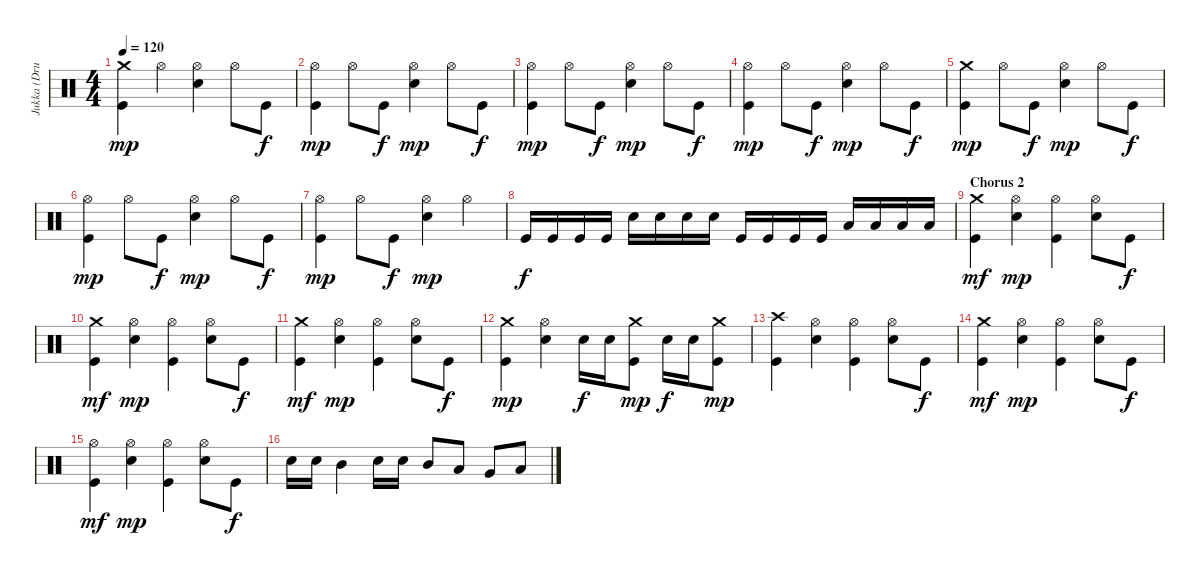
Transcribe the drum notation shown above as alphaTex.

\track ("Jukka (Drums)" "Jukka (Dru") {instrument percussion}
\staff {score}
\articulation defaults
\ts (4 4)
\tempo 120
\clef neutral
\ks c
("Crash medium (hit)" "Kick (hit)").4{dy mp} "Hi-Hat (open)".4 ("Hi-Hat (open)" "Electric Snare (hit)").4 "Hi-Hat (open)".8 "Kick (hit)".8{dy f} |
("Hi-Hat (open)" "Kick (hit)").4{dy mp} "Hi-Hat (open)".8 "Kick (hit)".8{dy f} ("Hi-Hat (open)" "Electric Snare (hit)").4{dy mp} "Hi-Hat (open)".8 "Kick (hit)".8{dy f} |
("Hi-Hat (open)" "Kick (hit)").4{dy mp} "Hi-Hat (open)".8 "Kick (hit)".8{dy f} ("Hi-Hat (open)" "Electric Snare (hit)").4{dy mp} "Hi-Hat (open)".8 "Kick (hit)".8{dy f} |
("Hi-Hat (open)" "Kick (hit)").4{dy mp} "Hi-Hat (open)".8 "Kick (hit)".8{dy f} ("Hi-Hat (open)" "Electric Snare (hit)").4{dy mp} "Hi-Hat (open)".8 "Kick (hit)".8{dy f} |
("Crash medium (hit)" "Kick (hit)").4{dy mp} "Hi-Hat (open)".8 "Kick (hit)".8{dy f} ("Hi-Hat (open)" "Electric Snare (hit)").4{dy mp} "Hi-Hat (open)".8 "Kick (hit)".8{dy f} |
("Hi-Hat (open)" "Kick (hit)").4{dy mp} "Hi-Hat (open)".8 "Kick (hit)".8{dy f} ("Hi-Hat (open)" "Electric Snare (hit)").4{dy mp} "Hi-Hat (open)".8 "Kick (hit)".8{dy f} |
("Hi-Hat (open)" "Kick (hit)").4{dy mp} "Hi-Hat (open)".8 "Kick (hit)".8{dy f} ("Hi-Hat (open)" "Electric Snare (hit)").4{dy mp} "Hi-Hat (open)".4 |
"Kick (hit)".16{dy f} "Kick (hit)".16 "Kick (hit)".16 "Kick (hit)".16 "Electric Snare (hit)".16 "Electric Snare (hit)".16 "Electric Snare (hit)".16 "Electric Snare (hit)".16 "Kick (hit)".16 "Kick (hit)".16 "Kick (hit)".16 "Kick (hit)".16 "Low Floor Tom (hit)".16 "Low Floor Tom (hit)".16 "Low Floor Tom (hit)".16 "Low Floor Tom (hit)".16 |
\section ("" "Chorus 2")
("Crash medium (hit)" "Kick (hit)").4{dy mf} ("Hi-Hat (open)" "Electric Snare (hit)").4{dy mp} ("Hi-Hat (open)" "Kick (hit)").4 ("Hi-Hat (open)" "Electric Snare (hit)").8 "Kick (hit)".8{dy f} |
("Crash medium (hit)" "Kick (hit)").4{dy mf} ("Hi-Hat (open)" "Electric Snare (hit)").4{dy mp} ("Hi-Hat (open)" "Kick (hit)").4 ("Hi-Hat (open)" "Electric Snare (hit)").8 "Kick (hit)".8{dy f} |
("Crash medium (hit)" "Kick (hit)").4{dy mf} ("Hi-Hat (open)" "Electric Snare (hit)").4{dy mp} ("Hi-Hat (open)" "Kick (hit)").4 ("Hi-Hat (open)" "Electric Snare (hit)").8 "Kick (hit)".8{dy f} |
("Crash medium (hit)" "Kick (hit)").4{dy mp} ("Hi-Hat (open)" "Electric Snare (hit)").4 "Electric Snare (hit)".16{dy f} "Electric Snare (hit)".16 ("Crash medium (hit)" "Kick (hit)").8{dy mp} "Electric Snare (hit)".16{dy f} "Electric Snare (hit)".16 ("Crash medium (hit)" "Kick (hit)").8{dy mp} |
("Crash high (hit)" "Kick (hit)").4 ("Hi-Hat (open)" "Electric Snare (hit)").4 ("Hi-Hat (open)" "Kick (hit)").4 ("Hi-Hat (open)" "Electric Snare (hit)").8 "Kick (hit)".8{dy f} |
("Crash medium (hit)" "Kick (hit)").4{dy mf} ("Hi-Hat (open)" "Electric Snare (hit)").4{dy mp} ("Hi-Hat (open)" "Kick (hit)").4 ("Hi-Hat (open)" "Electric Snare (hit)").8 "Kick (hit)".8{dy f} |
("Hi-Hat (open)" "Kick (hit)").4{dy mf} ("Hi-Hat (open)" "Electric Snare (hit)").4{dy mp} ("Hi-Hat (open)" "Kick (hit)").4 ("Hi-Hat (open)" "Electric Snare (hit)").8 "Kick (hit)".8{dy f} |
"Electric Snare (hit)".16 "Electric Snare (hit)".16 "Mid Tom (hit)".4 "Electric Snare (hit)".16 "Electric Snare (hit)".16 "Mid Tom (hit)".8 "Low Tom (hit)".8 "Very Low Tom (hit)".8 "Low Floor Tom (hit)".8
